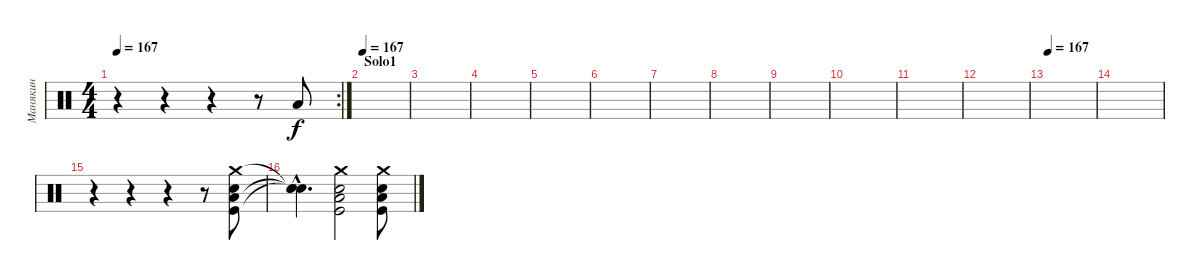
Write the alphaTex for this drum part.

\track ("Манякин" "Манякин") {instrument percussion}
\staff {score}
\articulation defaults
\rc 2
\ts (4 4)
\tempo 167
\clef neutral
\ks c
r.4{dy f} r.4 r.4 r.8 "Low Tom (hit)"{tr (45 64)}.8 |
\section ("" "Solo1")
\tempo 167
|
|
|
|
|
|
|
|
|
|
|
\tempo 167
|
|
r.4 r.4 r.4 r.8 ("Crash medium (hit)" "Low Tom (hit)" "Kick (hit)" "Snare (hit) 2").8 |
("Snare (hit)"{hac t} "Snare (hit)"{hac t} "Snare (hit)"{hac t}).4{d} ("Crash medium (hit)" "Low Tom (hit)" "Kick (hit)" "Snare (hit) 2").2 ("Crash medium (hit)" "Low Tom (hit)" "Kick (hit)" "Snare (hit) 2").8
